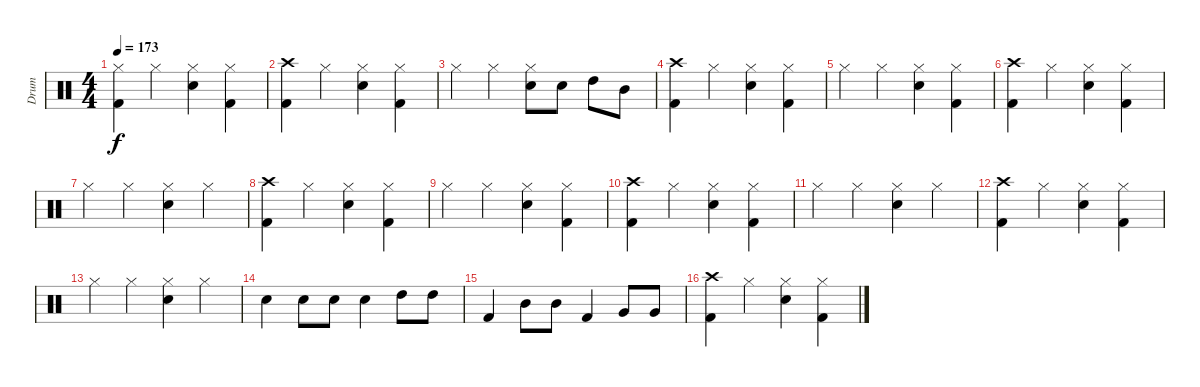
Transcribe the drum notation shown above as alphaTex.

\track ("Drum" "Drum") {instrument percussion}
\staff {score}
\articulation defaults
\ts (4 4)
\tempo 173
\clef neutral
\ks c
("Hi-Hat (closed)" "Kick (hit) 2").4{dy f} "Hi-Hat (closed)".4 ("Hi-Hat (closed)" "Electric Snare (hit)").4 ("Hi-Hat (closed)" "Kick (hit) 2").4 |
("Crash high (hit)" "Kick (hit) 2").4 "Hi-Hat (closed)".4 ("Hi-Hat (closed)" "Electric Snare (hit)").4 ("Hi-Hat (closed)" "Kick (hit) 2").4 |
"Hi-Hat (closed)".4 "Hi-Hat (closed)".4 ("Hi-Hat (closed)" "Electric Snare (hit)").8 "Electric Snare (hit)".8 "High Tom (hit)".8 "Mid Tom (hit)".8 |
("Crash high (hit)" "Kick (hit) 2").4 "Hi-Hat (closed)".4 ("Hi-Hat (closed)" "Electric Snare (hit)").4 ("Hi-Hat (closed)" "Kick (hit) 2").4 |
"Hi-Hat (closed)".4 "Hi-Hat (closed)".4 ("Hi-Hat (closed)" "Electric Snare (hit)").4 ("Hi-Hat (closed)" "Kick (hit) 2").4 |
("Crash high (hit)" "Kick (hit) 2").4 "Hi-Hat (closed)".4 ("Hi-Hat (closed)" "Electric Snare (hit)").4 ("Hi-Hat (closed)" "Kick (hit) 2").4 |
"Hi-Hat (closed)".4 "Hi-Hat (closed)".4 ("Hi-Hat (closed)" "Electric Snare (hit)").4 "Hi-Hat (closed)".4 |
("Crash high (hit)" "Kick (hit) 2").4 "Hi-Hat (closed)".4 ("Hi-Hat (closed)" "Electric Snare (hit)").4 ("Hi-Hat (closed)" "Kick (hit) 2").4 |
"Hi-Hat (closed)".4 "Hi-Hat (closed)".4 ("Hi-Hat (closed)" "Electric Snare (hit)").4 ("Hi-Hat (closed)" "Kick (hit) 2").4 |
("Crash high (hit)" "Kick (hit) 2").4 "Hi-Hat (closed)".4 ("Hi-Hat (closed)" "Electric Snare (hit)").4 ("Hi-Hat (closed)" "Kick (hit) 2").4 |
"Hi-Hat (closed)".4 "Hi-Hat (closed)".4 ("Hi-Hat (closed)" "Electric Snare (hit)").4 "Hi-Hat (closed)".4 |
("Crash high (hit)" "Kick (hit) 2").4 "Hi-Hat (closed)".4 ("Hi-Hat (closed)" "Electric Snare (hit)").4 ("Hi-Hat (closed)" "Kick (hit) 2").4 |
"Hi-Hat (closed)".4 "Hi-Hat (closed)".4 ("Hi-Hat (closed)" "Electric Snare (hit)").4 "Hi-Hat (closed)".4 |
"Electric Snare (hit)".4 "Electric Snare (hit)".8 "Electric Snare (hit)".8 "Electric Snare (hit)".4 "High Tom (hit)".8 "High Tom (hit)".8 |
"Kick (hit) 2".4 "Mid Tom (hit)".8 "Mid Tom (hit)".8 "Kick (hit) 2".4 "Very Low Tom (hit)".8 "Very Low Tom (hit)".8 |
("Crash high (hit)" "Kick (hit) 2").4 "Hi-Hat (closed)".4 ("Hi-Hat (closed)" "Electric Snare (hit)").4 ("Hi-Hat (closed)" "Kick (hit) 2").4
